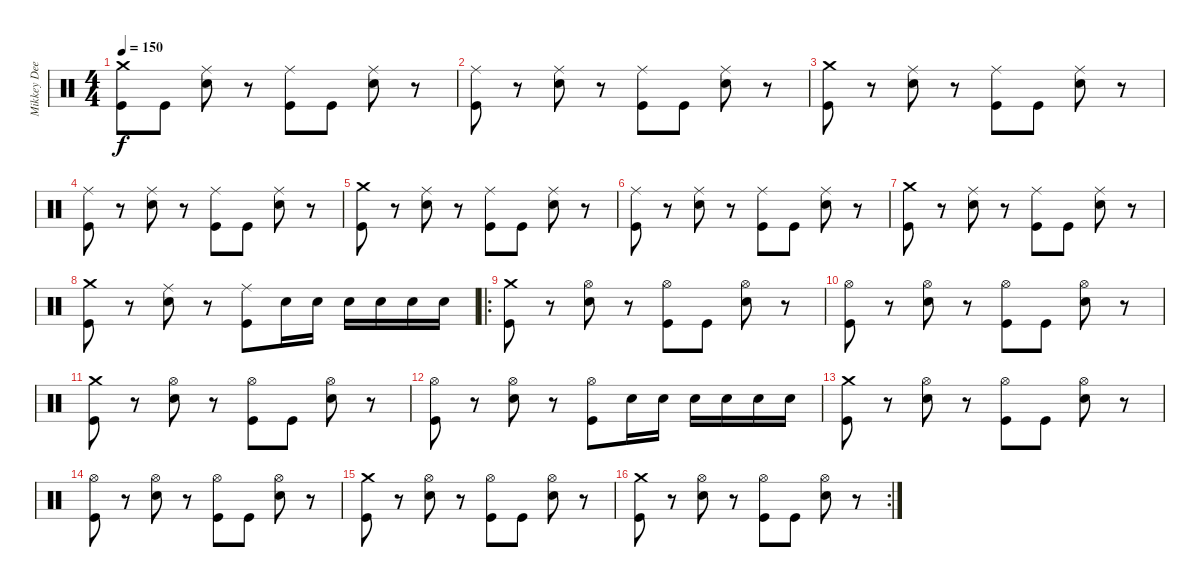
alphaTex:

\track ("Mikkey Dee" "Mikkey Dee") {instrument percussion}
\staff {score}
\articulation defaults
\ts (4 4)
\tempo 150
\clef neutral
\ks c
("Crash medium (hit)" "Kick (hit)").8{dy f} "Kick (hit)".8 ("Ride (middle)" "Snare (hit) 2").8 r.8 ("Ride (middle)" "Kick (hit)").8 "Kick (hit)".8 ("Ride (middle)" "Snare (hit) 2").8 r.8 |
("Ride (middle)" "Kick (hit)").8 r.8 ("Ride (middle)" "Snare (hit) 2").8 r.8 ("Ride (middle)" "Kick (hit)").8 "Kick (hit)".8 ("Ride (middle)" "Snare (hit) 2").8 r.8 |
("Crash medium (hit)" "Kick (hit)").8 r.8 ("Ride (middle)" "Snare (hit) 2").8 r.8 ("Ride (middle)" "Kick (hit)").8 "Kick (hit)".8 ("Ride (middle)" "Snare (hit) 2").8 r.8 |
("Ride (middle)" "Kick (hit)").8 r.8 ("Ride (middle)" "Snare (hit) 2").8 r.8 ("Ride (middle)" "Kick (hit)").8 "Kick (hit)".8 ("Ride (middle)" "Snare (hit) 2").8 r.8 |
("Crash medium (hit)" "Kick (hit)").8 r.8 ("Ride (middle)" "Snare (hit) 2").8 r.8 ("Ride (middle)" "Kick (hit)").8 "Kick (hit)".8 ("Ride (middle)" "Snare (hit) 2").8 r.8 |
("Ride (middle)" "Kick (hit)").8 r.8 ("Ride (middle)" "Snare (hit) 2").8 r.8 ("Ride (middle)" "Kick (hit)").8 "Kick (hit)".8 ("Ride (middle)" "Snare (hit) 2").8 r.8 |
("Crash medium (hit)" "Kick (hit)").8 r.8 ("Ride (middle)" "Snare (hit) 2").8 r.8 ("Ride (middle)" "Kick (hit)").8 "Kick (hit)".8 ("Ride (middle)" "Snare (hit) 2").8 r.8 |
("Crash medium (hit)" "Kick (hit)").8 r.8 ("Ride (middle)" "Snare (hit) 2").8 r.8 ("Ride (middle)" "Kick (hit)").8 "Snare (hit) 2".16 "Snare (hit) 2".16 "Snare (hit) 2".16 "Snare (hit) 2".16 "Snare (hit) 2".16 "Snare (hit) 2".16 |
\ro
("Crash medium (hit)" "Kick (hit)").8 r.8 ("Hi-Hat (open)" "Snare (hit) 2").8 r.8 ("Hi-Hat (open)" "Kick (hit)").8 "Kick (hit)".8 ("Hi-Hat (open)" "Snare (hit) 2").8 r.8 |
("Hi-Hat (open)" "Kick (hit)").8 r.8 ("Hi-Hat (open)" "Snare (hit) 2").8 r.8 ("Hi-Hat (open)" "Kick (hit)").8 "Kick (hit)".8 ("Hi-Hat (open)" "Snare (hit) 2").8 r.8 |
("Crash medium (hit)" "Kick (hit)").8 r.8 ("Hi-Hat (open)" "Snare (hit) 2").8 r.8 ("Hi-Hat (open)" "Kick (hit)").8 "Kick (hit)".8 ("Hi-Hat (open)" "Snare (hit) 2").8 r.8 |
("Hi-Hat (open)" "Kick (hit)").8 r.8 ("Hi-Hat (open)" "Snare (hit) 2").8 r.8 ("Hi-Hat (open)" "Kick (hit)").8 "Snare (hit) 2".16 "Snare (hit) 2".16 "Snare (hit) 2".16 "Snare (hit) 2".16 "Snare (hit) 2".16 "Snare (hit) 2".16 |
("Crash medium (hit)" "Kick (hit)").8 r.8 ("Hi-Hat (open)" "Snare (hit) 2").8 r.8 ("Hi-Hat (open)" "Kick (hit)").8 "Kick (hit)".8 ("Hi-Hat (open)" "Snare (hit) 2").8 r.8 |
("Hi-Hat (open)" "Kick (hit)").8 r.8 ("Hi-Hat (open)" "Snare (hit) 2").8 r.8 ("Hi-Hat (open)" "Kick (hit)").8 "Kick (hit)".8 ("Hi-Hat (open)" "Snare (hit) 2").8 r.8 |
("Crash medium (hit)" "Kick (hit)").8 r.8 ("Hi-Hat (open)" "Snare (hit) 2").8 r.8 ("Hi-Hat (open)" "Kick (hit)").8 "Kick (hit)".8 ("Hi-Hat (open)" "Snare (hit) 2").8 r.8 |
\rc 2
("Crash medium (hit)" "Kick (hit)").8 r.8 ("Hi-Hat (open)" "Snare (hit) 2").8 r.8 ("Hi-Hat (open)" "Kick (hit)").8 "Kick (hit)".8 ("Hi-Hat (open)" "Snare (hit) 2").8 r.8
